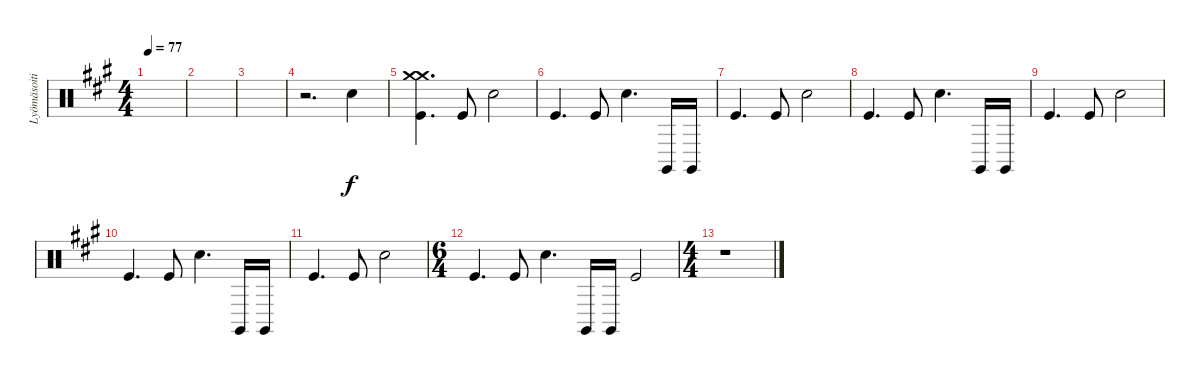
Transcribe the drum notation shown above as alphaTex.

\track ("Lyömäsoitin" "Lyömäsoiti") {instrument percussion}
\staff {score}
\articulation defaults
\ts (4 4)
\tempo 77
\clef neutral
\ks f#minor
|
|
|
r.2{d} "Snare (hit) 2".4 |
("Kick (hit)" "Crash medium (hit)" "Crash medium (hit)").4{d} "Kick (hit)".8 "Snare (hit) 2".2 |
"Kick (hit)".4{d} "Kick (hit)".8 "Snare (hit) 2".4{d} "Claves (hit)".16 "Claves (hit)".16 |
"Kick (hit)".4{d} "Kick (hit)".8 "Snare (hit) 2".2 |
"Kick (hit)".4{d} "Kick (hit)".8 "Snare (hit) 2".4{d} "Claves (hit)".16 "Claves (hit)".16 |
"Kick (hit)".4{d} "Kick (hit)".8 "Snare (hit) 2".2 |
"Kick (hit)".4{d} "Kick (hit)".8 "Snare (hit) 2".4{d} "Claves (hit)".16 "Claves (hit)".16 |
"Kick (hit)".4{d} "Kick (hit)".8 "Snare (hit) 2".2 |
\ts (6 4)
"Kick (hit)".4{d} "Kick (hit)".8 "Snare (hit) 2".4{d} "Claves (hit)".16 "Claves (hit)".16 "Kick (hit)".2 |
\ts (4 4)
r.1
